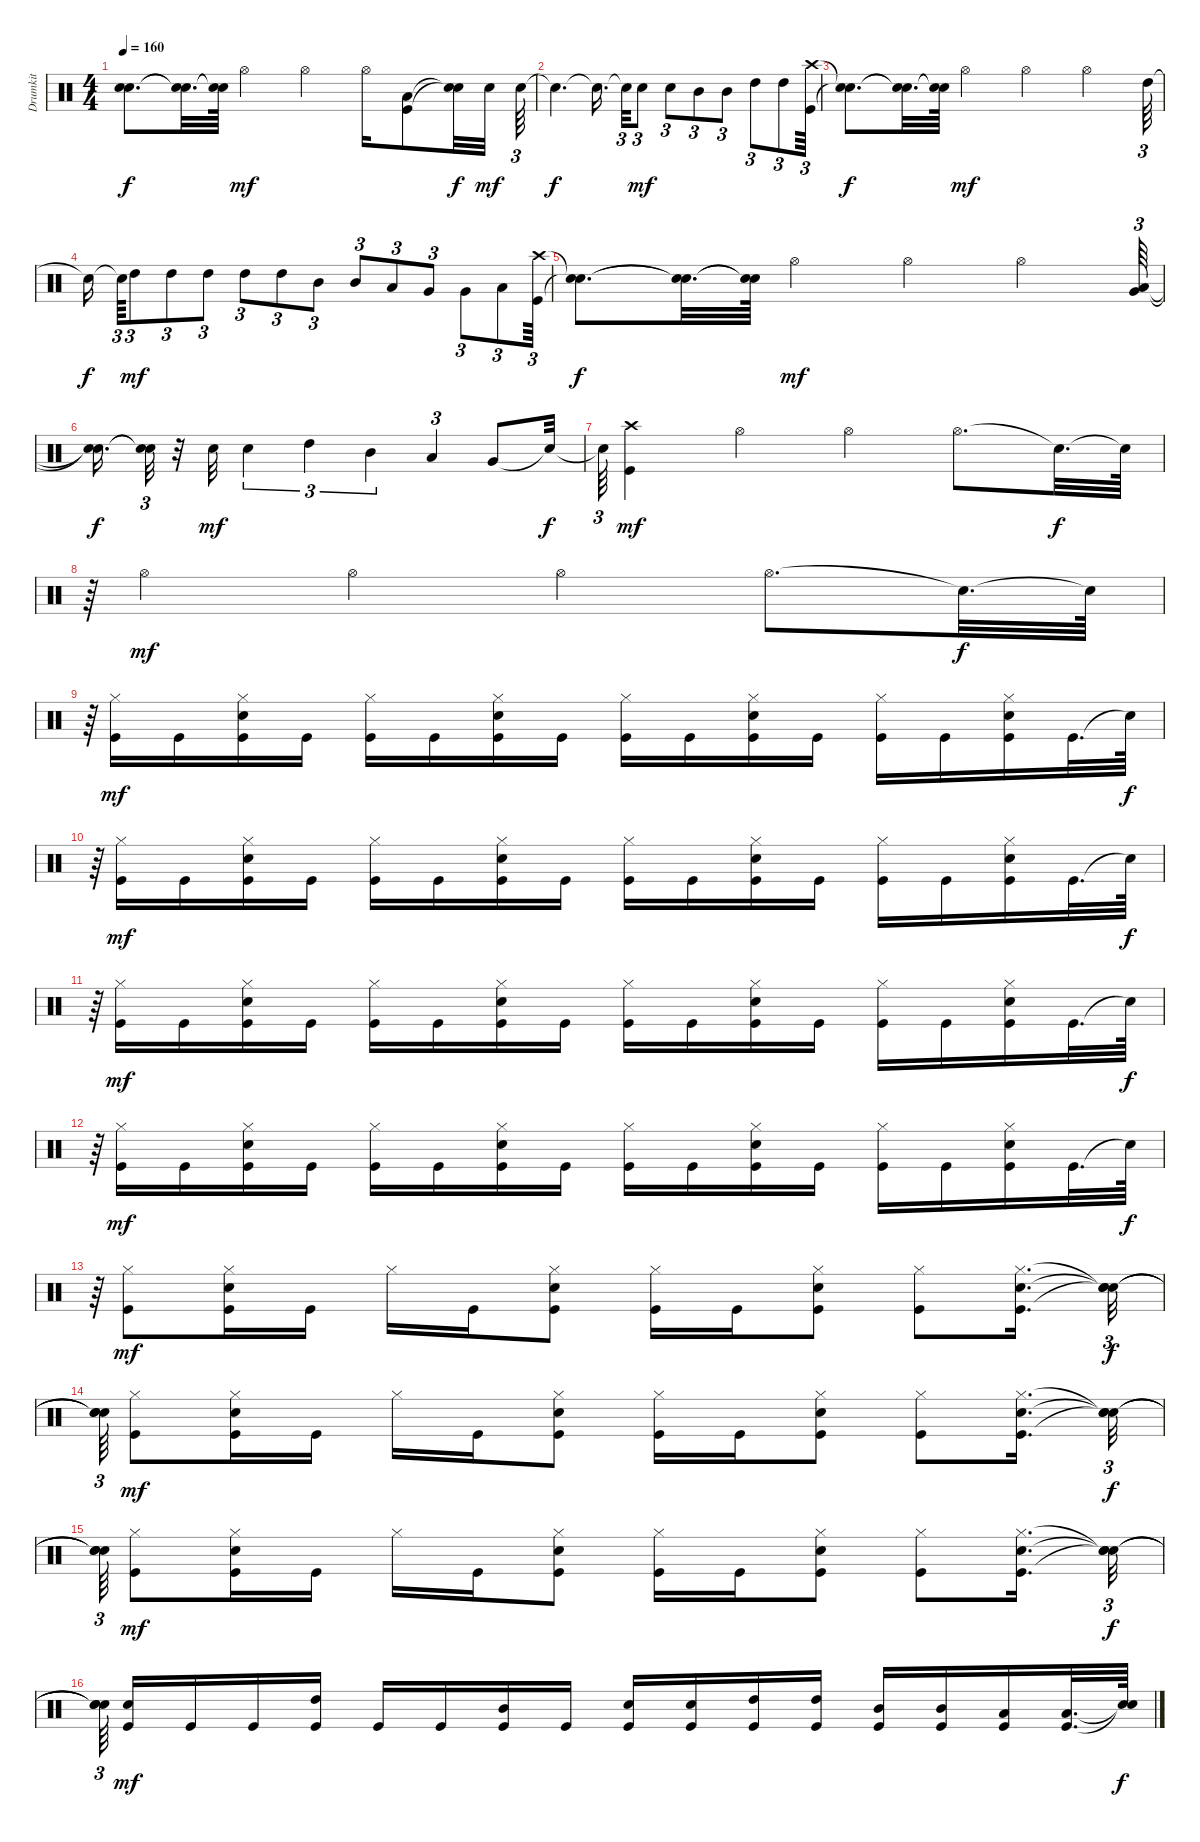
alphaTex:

\track ("Drumkit" "Drumkit") {instrument percussion}
\staff {score}
\articulation defaults
\ts (4 4)
\tempo 160
\clef neutral
\ks c
("Snare (hit)"{t} "Snare (hit)"{t}).8{d dy f} ("Snare (hit)"{t} "Snare (hit)"{t}).32{d} ("Snare (hit)"{t} "Snare (hit)"{t}).64 "Hi-Hat (open)".4{dy mf} "Hi-Hat (open)".4 "Hi-Hat (open)".16 ("Kick (hit)" "Low Floor Tom (hit)").8 ("Snare (hit)"{t} "Snare (hit)"{t}).32{dy f} "Snare (hit) 2".32{dy mf} "Snare (hit) 2".64{tu (3 2)} |
"Snare (hit)"{t}.4{d dy f} "Snare (hit)"{t}.16{d beam splitsecondary} "Snare (hit)"{t}.32{tu (3 2)} "Snare (hit) 2".8{tu (3 2) dy mf} "Snare (hit) 2".8{tu (3 2)} "Mid Tom (hit)".8{tu (3 2)} "Mid Tom (hit)".8{tu (3 2)} "High Tom (hit)".8{tu (3 2)} "High Tom (hit)".8{tu (3 2)} ("Kick (hit)" "Crash high (hit)").64{tu (3 2)} |
("Snare (hit)"{t} "Snare (hit)"{t}).8{d dy f} ("Snare (hit)"{t} "Snare (hit)"{t}).32{d} ("Snare (hit)"{t} "Snare (hit)"{t}).64 "Hi-Hat (open)".4{dy mf} "Hi-Hat (open)".4 "Hi-Hat (open)".4 "High Tom (hit)".64{tu (3 2)} |
"Snare (hit)"{t}.16{dy f beam splitsecondary} "Snare (hit)"{t}.64{tu (3 2)} "High Tom (hit)".8{tu (3 2) dy mf} "High Tom (hit)".8{tu (3 2)} "High Tom (hit)".8{tu (3 2)} "High Tom (hit)".8{tu (3 2)} "High Tom (hit)".8{tu (3 2)} "Mid Tom (hit)".8{tu (3 2)} "Mid Tom (hit)".8{tu (3 2)} "Low Tom (hit)".8{tu (3 2)} "Very Low Tom (hit)".8{tu (3 2)} "Very Low Tom (hit)".8{tu (3 2)} "Low Floor Tom (hit)".8{tu (3 2)} ("Kick (hit)" "Crash high (hit)").64{tu (3 2)} |
("Snare (hit)"{t} "Snare (hit)"{t}).8{d dy f} ("Snare (hit)"{t} "Snare (hit)"{t}).32{d} ("Snare (hit)"{t} "Snare (hit)"{t}).64 "Hi-Hat (open)".4{dy mf} "Hi-Hat (open)".4 "Hi-Hat (open)".4 ("Low Floor Tom (hit)" "Very Low Tom (hit)").64{tu (3 2)} |
("Snare (hit)"{t} "Snare (hit)"{t}).16{d dy f} ("Snare (hit)"{t} "Snare (hit)"{t}).32{tu (3 2)} r.32 "Snare (hit) 2".32{dy mf} "Snare (hit) 2".4{tu (3 2)} "High Tom (hit)".4{tu (3 2)} "Mid Tom (hit)".4{tu (3 2)} "Low Tom (hit)".4{tu (3 2)} "Very Low Tom (hit)".8 "Snare (hit)"{t}.32{dy f} |
"Snare (hit)"{t}.64{tu (3 2)} ("Kick (hit)" "Crash high (hit)").4{dy mf} "Hi-Hat (open)".4 "Hi-Hat (open)".4 "Hi-Hat (open)".8{d} "Snare (hit)"{t}.32{d dy f} "Snare (hit)"{t}.64 |
r.64{tu (3 2)} "Hi-Hat (open)".4{dy mf} "Hi-Hat (open)".4 "Hi-Hat (open)".4 "Hi-Hat (open)".8{d} "Snare (hit)"{t}.32{d dy f} "Snare (hit)"{t}.64 |
r.64{tu (3 2)} ("Kick (hit)" "Hi-Hat (closed)").16{dy mf} "Kick (hit)".16 ("Kick (hit)" "Snare (hit) 2" "Hi-Hat (closed)").16 "Kick (hit)".16 ("Kick (hit)" "Hi-Hat (closed)").16 "Kick (hit)".16 ("Kick (hit)" "Snare (hit) 2" "Hi-Hat (closed)").16 "Kick (hit)".16 ("Kick (hit)" "Hi-Hat (closed)").16 "Kick (hit)".16 ("Kick (hit)" "Snare (hit) 2" "Hi-Hat (closed)").16 "Kick (hit)".16 ("Kick (hit)" "Hi-Hat (closed)").16 "Kick (hit)".16 ("Kick (hit)" "Snare (hit) 2" "Hi-Hat (closed)").16 "Kick (hit)".32{d} "Snare (hit)"{t}.64{dy f} |
r.64{tu (3 2)} ("Kick (hit)" "Hi-Hat (closed)").16{dy mf} "Kick (hit)".16 ("Kick (hit)" "Snare (hit) 2" "Hi-Hat (closed)").16 "Kick (hit)".16 ("Kick (hit)" "Hi-Hat (closed)").16 "Kick (hit)".16 ("Kick (hit)" "Snare (hit) 2" "Hi-Hat (closed)").16 "Kick (hit)".16 ("Kick (hit)" "Hi-Hat (closed)").16 "Kick (hit)".16 ("Kick (hit)" "Snare (hit) 2" "Hi-Hat (closed)").16 "Kick (hit)".16 ("Kick (hit)" "Hi-Hat (closed)").16 "Kick (hit)".16 ("Kick (hit)" "Snare (hit) 2" "Hi-Hat (closed)").16 "Kick (hit)".32{d} "Snare (hit)"{t}.64{dy f} |
r.64{tu (3 2)} ("Kick (hit)" "Hi-Hat (closed)").16{dy mf} "Kick (hit)".16 ("Kick (hit)" "Snare (hit) 2" "Hi-Hat (closed)").16 "Kick (hit)".16 ("Kick (hit)" "Hi-Hat (closed)").16 "Kick (hit)".16 ("Kick (hit)" "Snare (hit) 2" "Hi-Hat (closed)").16 "Kick (hit)".16 ("Kick (hit)" "Hi-Hat (closed)").16 "Kick (hit)".16 ("Kick (hit)" "Snare (hit) 2" "Hi-Hat (closed)").16 "Kick (hit)".16 ("Kick (hit)" "Hi-Hat (closed)").16 "Kick (hit)".16 ("Kick (hit)" "Snare (hit) 2" "Hi-Hat (closed)").16 "Kick (hit)".32{d} "Snare (hit)"{t}.64{dy f} |
r.64{tu (3 2)} ("Kick (hit)" "Hi-Hat (closed)").16{dy mf} "Kick (hit)".16 ("Kick (hit)" "Snare (hit) 2" "Hi-Hat (closed)").16 "Kick (hit)".16 ("Kick (hit)" "Hi-Hat (closed)").16 "Kick (hit)".16 ("Kick (hit)" "Snare (hit) 2" "Hi-Hat (closed)").16 "Kick (hit)".16 ("Kick (hit)" "Hi-Hat (closed)").16 "Kick (hit)".16 ("Kick (hit)" "Snare (hit) 2" "Hi-Hat (closed)").16 "Kick (hit)".16 ("Kick (hit)" "Hi-Hat (closed)").16 "Kick (hit)".16 ("Kick (hit)" "Snare (hit) 2" "Hi-Hat (closed)").16 "Kick (hit)".32{d} "Snare (hit)"{t}.64{dy f} |
r.64{tu (3 2)} ("Kick (hit)" "Hi-Hat (closed)").8{dy mf} ("Kick (hit)" "Snare (hit) 2" "Hi-Hat (closed)").16 "Kick (hit)".16 "Hi-Hat (closed)".16 "Kick (hit)".16 ("Kick (hit)" "Snare (hit) 2" "Hi-Hat (closed)").8 ("Kick (hit)" "Hi-Hat (closed)").16 "Kick (hit)".16 ("Kick (hit)" "Snare (hit) 2" "Hi-Hat (closed)").8 ("Kick (hit)" "Hi-Hat (closed)").8 ("Kick (hit)" "Snare (hit) 2" "Hi-Hat (closed)").16{d} ("Snare (hit)"{t} "Snare (hit)"{t} "Snare (hit)"{t}).32{tu (3 2) dy f} |
("Snare (hit)"{t} "Snare (hit)"{t} "Snare (hit)"{t}).64{tu (3 2)} ("Kick (hit)" "Hi-Hat (closed)").8{dy mf} ("Kick (hit)" "Snare (hit) 2" "Hi-Hat (closed)").16 "Kick (hit)".16 "Hi-Hat (closed)".16 "Kick (hit)".16 ("Kick (hit)" "Snare (hit) 2" "Hi-Hat (closed)").8 ("Kick (hit)" "Hi-Hat (closed)").16 "Kick (hit)".16 ("Kick (hit)" "Snare (hit) 2" "Hi-Hat (closed)").8 ("Kick (hit)" "Hi-Hat (closed)").8 ("Kick (hit)" "Snare (hit) 2" "Hi-Hat (closed)").16{d} ("Snare (hit)"{t} "Snare (hit)"{t} "Snare (hit)"{t}).32{tu (3 2) dy f} |
("Snare (hit)"{t} "Snare (hit)"{t} "Snare (hit)"{t}).64{tu (3 2)} ("Kick (hit)" "Hi-Hat (closed)").8{dy mf} ("Kick (hit)" "Snare (hit) 2" "Hi-Hat (closed)").16 "Kick (hit)".16 "Hi-Hat (closed)".16 "Kick (hit)".16 ("Kick (hit)" "Snare (hit) 2" "Hi-Hat (closed)").8 ("Kick (hit)" "Hi-Hat (closed)").16 "Kick (hit)".16 ("Kick (hit)" "Snare (hit) 2" "Hi-Hat (closed)").8 ("Kick (hit)" "Hi-Hat (closed)").8 ("Kick (hit)" "Snare (hit) 2" "Hi-Hat (closed)").16{d} ("Snare (hit)"{t} "Snare (hit)"{t} "Snare (hit)"{t}).32{tu (3 2) dy f} |
("Snare (hit)"{t} "Snare (hit)"{t} "Snare (hit)"{t}).64{tu (3 2) beam splitsecondary} ("Kick (hit)" "Snare (hit) 2").16{dy mf} "Kick (hit)".16 "Kick (hit)".16 ("Kick (hit)" "High Tom (hit)").16 "Kick (hit)".16 "Kick (hit)".16 ("Kick (hit)" "Mid Tom (hit)").16 "Kick (hit)".16 ("Kick (hit)" "Snare (hit) 2").16 ("Kick (hit)" "Snare (hit) 2").16 ("Kick (hit)" "High Tom (hit)").16 ("Kick (hit)" "High Tom (hit)").16 ("Kick (hit)" "Mid Tom (hit)").16 ("Kick (hit)" "Mid Tom (hit)").16 ("Kick (hit)" "Low Tom (hit)").16 ("Kick (hit)" "Low Tom (hit)").32{d} ("Snare (hit)"{t} "Snare (hit)"{t}).64{dy f}
